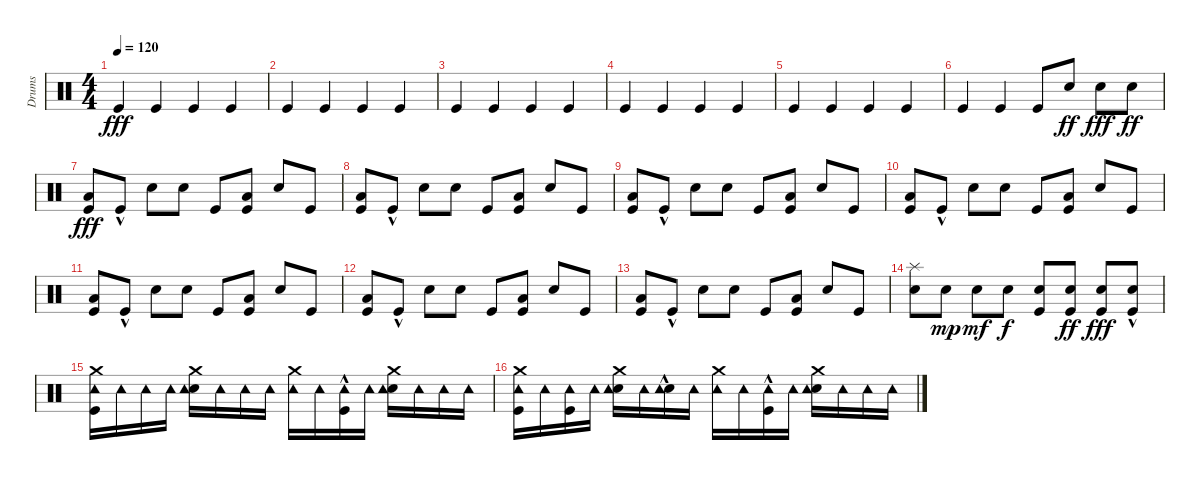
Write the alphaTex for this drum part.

\track ("Drums" "Drums") {instrument percussion}
\staff {score}
\articulation defaults
\ts (4 4)
\tempo 120
\clef neutral
\ks c "Kick (hit)".4{dy fff} "Kick (hit)".4 "Kick (hit)".4 "Kick (hit)".4
|
"Kick (hit)".4 "Kick (hit)".4 "Kick (hit)".4 "Kick (hit)".4 |
"Kick (hit)".4 "Kick (hit)".4 "Kick (hit)".4 "Kick (hit)".4 |
"Kick (hit)".4 "Kick (hit)".4 "Kick (hit)".4 "Kick (hit)".4 |
"Kick (hit)".4 "Kick (hit)".4 "Kick (hit)".4 "Kick (hit)".4 |
"Kick (hit)".4 "Kick (hit)".4 "Kick (hit)".8 "Snare (hit) 2".8{dy ff} "Snare (hit) 2".8{dy fff} "Snare (hit) 2".8{dy ff} |
("Kick (hit)" "Low Floor Tom (hit)").8{dy fff} "Kick (hit)"{hac}.8 "Snare (hit) 2".8 "Snare (hit) 2".8 "Kick (hit)".8 ("Kick (hit)" "Low Floor Tom (hit)").8 "Snare (hit) 2".8 "Kick (hit)".8 |
("Kick (hit)" "Low Floor Tom (hit)").8 "Kick (hit)"{hac}.8 "Snare (hit) 2".8 "Snare (hit) 2".8 "Kick (hit)".8 ("Kick (hit)" "Low Floor Tom (hit)").8 "Snare (hit) 2".8 "Kick (hit)".8 |
("Kick (hit)" "Low Floor Tom (hit)").8 "Kick (hit)"{hac}.8 "Snare (hit) 2".8 "Snare (hit) 2".8 "Kick (hit)".8 ("Kick (hit)" "Low Floor Tom (hit)").8 "Snare (hit) 2".8 "Kick (hit)".8 |
("Kick (hit)" "Low Floor Tom (hit)").8 "Kick (hit)"{hac}.8 "Snare (hit) 2".8 "Snare (hit) 2".8 "Kick (hit)".8 ("Kick (hit)" "Low Floor Tom (hit)").8 "Snare (hit) 2".8 "Kick (hit)".8 |
("Kick (hit)" "Low Floor Tom (hit)").8 "Kick (hit)"{hac}.8 "Snare (hit) 2".8 "Snare (hit) 2".8 "Kick (hit)".8 ("Kick (hit)" "Low Floor Tom (hit)").8 "Snare (hit) 2".8 "Kick (hit)".8 |
("Kick (hit)" "Low Floor Tom (hit)").8 "Kick (hit)"{hac}.8 "Snare (hit) 2".8 "Snare (hit) 2".8 "Kick (hit)".8 ("Kick (hit)" "Low Floor Tom (hit)").8 "Snare (hit) 2".8 "Kick (hit)".8 |
("Kick (hit)" "Low Floor Tom (hit)").8 "Kick (hit)"{hac}.8 "Snare (hit) 2".8 "Snare (hit) 2".8 "Kick (hit)".8 ("Kick (hit)" "Low Floor Tom (hit)").8 "Snare (hit) 2".8 "Kick (hit)".8 |
("Snare (hit) 2" "Splash (hit)").8 "Snare (hit) 2".8{dy mp} "Snare (hit) 2".8{dy mf} "Snare (hit) 2".8{dy f} ("Kick (hit)" "Snare (hit) 2").8 ("Kick (hit)" "Snare (hit) 2").8{dy ff} ("Kick (hit)" "Snare (hit) 2").8{dy fff} ("Kick (hit)" "Snare (hit) 2"{hac}).8 |
("Kick (hit)" "Tambourine (hit)" "Crash medium (hit)").16 "Tambourine (hit)".16 "Tambourine (hit)".16 "Tambourine (hit)".16 ("Snare (hit) 2" "Tambourine (hit)" "Crash medium (hit)").16 "Tambourine (hit)".16 "Tambourine (hit)".16 "Tambourine (hit)".16 ("Tambourine (hit)" "Crash medium (hit)").16 "Tambourine (hit)".16 ("Kick (hit)"{hac} "Tambourine (hit)").16 "Tambourine (hit)".16 ("Snare (hit) 2" "Tambourine (hit)" "Crash medium (hit)").16 "Tambourine (hit)".16 "Tambourine (hit)".16 "Tambourine (hit)".16 |
("Kick (hit)" "Tambourine (hit)" "Crash medium (hit)").16 "Tambourine (hit)".16 ("Kick (hit)" "Tambourine (hit)").16 "Tambourine (hit)".16 ("Snare (hit) 2" "Tambourine (hit)" "Crash medium (hit)").16 "Tambourine (hit)".16 ("Snare (hit) 2"{hac} "Tambourine (hit)").16 "Tambourine (hit)".16 ("Tambourine (hit)" "Crash medium (hit)").16 "Tambourine (hit)".16 ("Kick (hit)"{hac} "Tambourine (hit)").16 "Tambourine (hit)".16 ("Snare (hit) 2" "Tambourine (hit)" "Crash medium (hit)").16 "Tambourine (hit)".16 "Tambourine (hit)".16 "Tambourine (hit)".16
